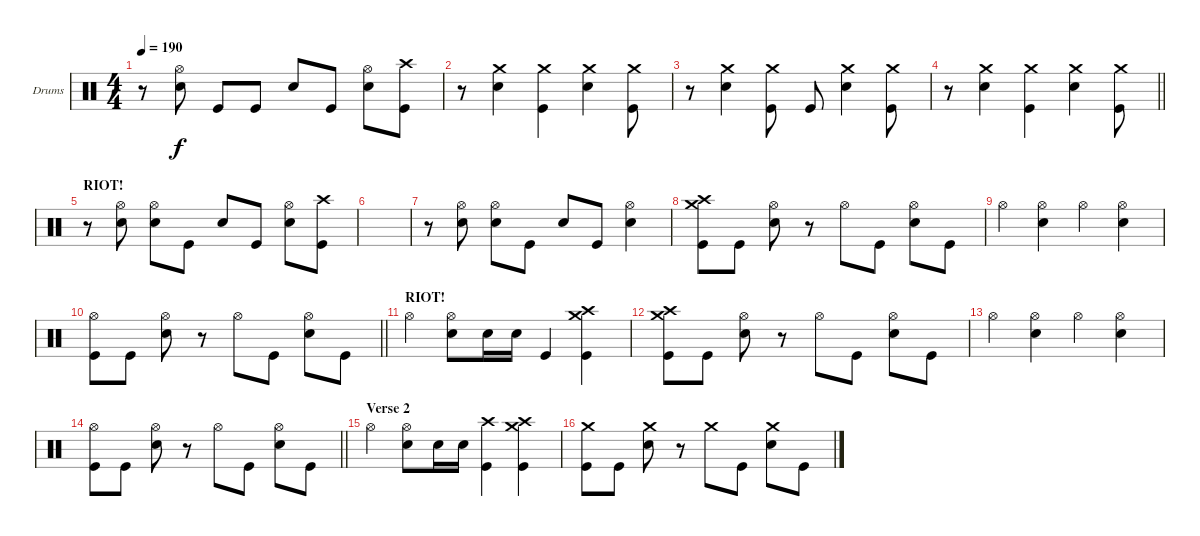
\bracketExtendMode groupsimilarinstruments
\firstSystemTrackNameOrientation horizontal
\otherSystemsTrackNameOrientation horizontal
\track ("Drumkit" "Drums") {instrument percussion}
\staff {score}
\articulation defaults
\ts (4 4)
\tempo 190
\clef neutral
\scale
0.333333
\ks c
r.8{dy f} ("Snare (hit) 2" "Hi-Hat (open)").8 "Kick (hit)".8 "Kick (hit)".8 "Snare (hit) 2".8 "Kick (hit)".8 ("Snare (hit) 2" "Hi-Hat (open)").8 ("Kick (hit)" "Crash high (hit)").8 |
\scale
0.333333 r.8 ("Snare (hit) 2" "Crash medium (hit)").4 ("Kick (hit)" "Crash medium (hit)").4 ("Snare (hit) 2" "Crash medium (hit)").4 ("Kick (hit)" "Crash medium (hit)").8 |
\scale
0.333333 r.8 ("Snare (hit) 2" "Crash medium (hit)").4 ("Kick (hit)" "Crash medium (hit)").8 "Kick (hit)".8 ("Snare (hit) 2" "Crash medium (hit)").4 ("Kick (hit)" "Crash medium (hit)").8 |
\scale
0.333333
\barLineRight lightlight
r.8 ("Snare (hit) 2" "Crash medium (hit)").4 ("Kick (hit)" "Crash medium (hit)").4 ("Snare (hit) 2" "Crash medium (hit)").4 ("Kick (hit)" "Crash medium (hit)").8 |
\section ("" "RIOT!")
\scale
0.333333 r.8 ("Snare (hit) 2" "Hi-Hat (open)").8 ("Snare (hit) 2" "Hi-Hat (open)").8 "Kick (hit)".8 "Snare (hit) 2".8 "Kick (hit)".8 ("Snare (hit) 2" "Hi-Hat (open)").8 ("Kick (hit)" "Crash high (hit)").8 |
|
r.8 ("Snare (hit) 2" "Hi-Hat (open)").8 ("Snare (hit) 2" "Hi-Hat (open)").8 "Kick (hit)".8 "Snare (hit) 2".8 "Kick (hit)".8 ("Snare (hit) 2" "Hi-Hat (open)").4 |
\scale
0.333333 ("Kick (hit)" "Crash medium (hit)" "Crash high (hit)").8 "Kick (hit)".8 ("Hi-Hat (open)" "Snare (hit) 2").8 r.8 "Hi-Hat (open)".8 "Kick (hit)".8 ("Snare (hit) 2" "Hi-Hat (open)").8 "Kick (hit)".8 |
\scale
0.333333 "Hi-Hat (open)".4 ("Hi-Hat (open)" "Snare (hit) 2").4 "Hi-Hat (open)".4 ("Hi-Hat (open)" "Snare (hit) 2").4 |
\scale
0.333333
\barLineRight lightlight
("Kick (hit)" "Hi-Hat (open)").8 "Kick (hit)".8 ("Hi-Hat (open)" "Snare (hit) 2").8 r.8 "Hi-Hat (open)".8 "Kick (hit)".8 ("Snare (hit) 2" "Hi-Hat (open)").8 "Kick (hit)".8 |
\section ("" "RIOT!")
\scale
0.333333 "Hi-Hat (open)".4 ("Hi-Hat (open)" "Snare (hit) 2").8 "Snare (hit) 2".16 "Snare (hit) 2".16 "Kick (hit)".4 ("Crash high (hit)" "Crash medium (hit)" "Kick (hit)").4 |
\scale
0.333333 ("Kick (hit)" "Crash medium (hit)" "Crash high (hit)").8 "Kick (hit)".8 ("Hi-Hat (open)" "Snare (hit) 2").8 r.8 "Hi-Hat (open)".8 "Kick (hit)".8 ("Snare (hit) 2" "Hi-Hat (open)").8 "Kick (hit)".8 |
\scale
0.333333 "Hi-Hat (open)".4 ("Hi-Hat (open)" "Snare (hit) 2").4 "Hi-Hat (open)".4 ("Hi-Hat (open)" "Snare (hit) 2").4 |
\scale
0.333333
\barLineRight lightlight
("Kick (hit)" "Hi-Hat (open)").8 "Kick (hit)".8 ("Hi-Hat (open)" "Snare (hit) 2").8 r.8 "Hi-Hat (open)".8 "Kick (hit)".8 ("Snare (hit) 2" "Hi-Hat (open)").8 "Kick (hit)".8 |
\section ("" "Verse 2")
\scale
0.333333 "Hi-Hat (open)".4 ("Hi-Hat (open)" "Snare (hit) 2").8 "Snare (hit) 2".16 "Snare (hit) 2".16 ("Kick (hit)" "Crash high (hit)").4 ("Crash high (hit)" "Crash medium (hit)" "Kick (hit)").4 |
\scale
0.333333 ("Kick (hit)" "Crash medium (hit)").8 "Kick (hit)".8 ("Snare (hit) 2" "Crash medium (hit)").8 r.8 "Crash medium (hit)".8 "Kick (hit)".8 ("Snare (hit) 2" "Crash medium (hit)").8 "Kick (hit)".8
